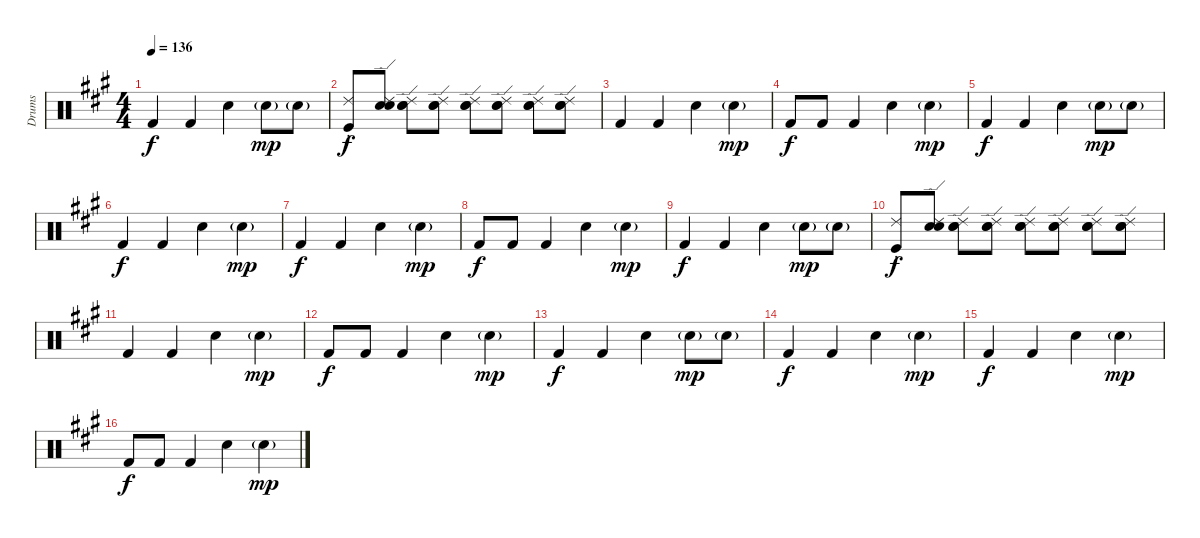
\track ("Drums" "Drums") {instrument percussion}
\staff {score}
\articulation defaults
\ts (4 4)
\tempo 136
\clef neutral
\ks a "Kick (hit) 2".4{dy f} "Kick (hit) 2".4 "Snare (hit) 2".4 "Snare (hit) 2"{g}.8{dy mp} "Snare (hit) 2"{g}.8
|
("Ride (choke) 2" "Kick (hit)").8{dy f} ("Ride (edge) 2" "Snare (hit) 2" "Electric Snare (hit)").8 ("Ride (edge) 2" "Snare (hit) 2" "Electric Snare (hit)").8 ("Ride (edge) 2" "Snare (hit) 2" "Electric Snare (hit)").8 ("Ride (edge) 2" "Snare (hit) 2" "Electric Snare (hit)").8 ("Ride (edge) 2" "Snare (hit) 2" "Electric Snare (hit)").8 ("Ride (edge) 2" "Snare (hit) 2" "Electric Snare (hit)").8 ("Ride (edge) 2" "Snare (hit) 2" "Electric Snare (hit)").8 |
"Kick (hit) 2".4 "Kick (hit) 2".4 "Snare (hit) 2".4 "Snare (hit) 2"{g}.4{dy mp} |
"Kick (hit) 2".8{dy f} "Kick (hit) 2".8 "Kick (hit) 2".4 "Snare (hit) 2".4 "Snare (hit) 2"{g}.4{dy mp} |
"Kick (hit) 2".4{dy f} "Kick (hit) 2".4 "Snare (hit) 2".4 "Snare (hit) 2"{g}.8{dy mp} "Snare (hit) 2"{g}.8 |
"Kick (hit) 2".4{dy f} "Kick (hit) 2".4 "Snare (hit) 2".4 "Snare (hit) 2"{g}.4{dy mp} |
"Kick (hit) 2".4{dy f} "Kick (hit) 2".4 "Snare (hit) 2".4 "Snare (hit) 2"{g}.4{dy mp} |
"Kick (hit) 2".8{dy f} "Kick (hit) 2".8 "Kick (hit) 2".4 "Snare (hit) 2".4 "Snare (hit) 2"{g}.4{dy mp} |
"Kick (hit) 2".4{dy f} "Kick (hit) 2".4 "Snare (hit) 2".4 "Snare (hit) 2"{g}.8{dy mp} "Snare (hit) 2"{g}.8 |
("Ride (choke) 2" "Kick (hit)").8{dy f} ("Ride (edge) 2" "Snare (hit) 2" "Electric Snare (hit)").8 ("Ride (edge) 2" "Snare (hit) 2" "Electric Snare (hit)").8 ("Ride (edge) 2" "Snare (hit) 2" "Electric Snare (hit)").8 ("Ride (edge) 2" "Snare (hit) 2" "Electric Snare (hit)").8 ("Ride (edge) 2" "Snare (hit) 2" "Electric Snare (hit)").8 ("Ride (edge) 2" "Snare (hit) 2" "Electric Snare (hit)").8 ("Ride (edge) 2" "Snare (hit) 2" "Electric Snare (hit)").8 |
"Kick (hit) 2".4 "Kick (hit) 2".4 "Snare (hit) 2".4 "Snare (hit) 2"{g}.4{dy mp} |
"Kick (hit) 2".8{dy f} "Kick (hit) 2".8 "Kick (hit) 2".4 "Snare (hit) 2".4 "Snare (hit) 2"{g}.4{dy mp} |
"Kick (hit) 2".4{dy f} "Kick (hit) 2".4 "Snare (hit) 2".4 "Snare (hit) 2"{g}.8{dy mp} "Snare (hit) 2"{g}.8 |
"Kick (hit) 2".4{dy f} "Kick (hit) 2".4 "Snare (hit) 2".4 "Snare (hit) 2"{g}.4{dy mp} |
"Kick (hit) 2".4{dy f} "Kick (hit) 2".4 "Snare (hit) 2".4 "Snare (hit) 2"{g}.4{dy mp} |
"Kick (hit) 2".8{dy f} "Kick (hit) 2".8 "Kick (hit) 2".4 "Snare (hit) 2".4 "Snare (hit) 2"{g}.4{dy mp}
